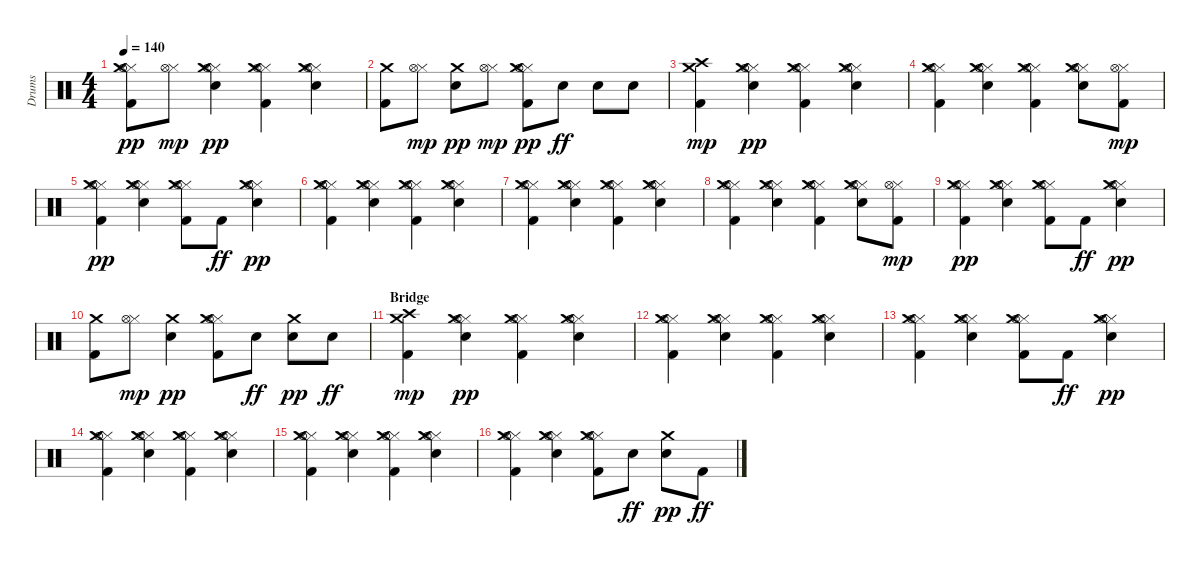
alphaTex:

\track ("Drums" "Drums") {instrument percussion}
\staff {score}
\articulation defaults
\ts (4 4)
\tempo 140
\clef neutral
\ks c
("Kick (hit) 2" "Hi-Hat (closed)" "Hi-Hat (open)" "Crash medium (hit)").8{dy pp} ("Hi-Hat (closed)" "Hi-Hat (open)").8{dy mp} ("Snare (hit) 2" "Hi-Hat (closed)" "Hi-Hat (open)" "Crash medium (hit)").4{dy pp} ("Kick (hit) 2" "Hi-Hat (closed)" "Hi-Hat (open)" "Crash medium (hit)").4 ("Snare (hit) 2" "Hi-Hat (closed)" "Hi-Hat (open)" "Crash medium (hit)").4 |
("Kick (hit) 2" "Crash medium (hit)").8 ("Hi-Hat (closed)" "Hi-Hat (open)").8{dy mp} ("Snare (hit) 2" "Crash medium (hit)").8{dy pp} ("Hi-Hat (closed)" "Hi-Hat (open)").8{dy mp} ("Kick (hit) 2" "Hi-Hat (closed)" "Hi-Hat (open)" "Crash medium (hit)").8{dy pp} "Snare (hit) 2".8{dy ff} "Snare (hit) 2".8 "Snare (hit) 2".8 |
("Kick (hit) 2" "Crash high (hit)" "Crash medium (hit)").4{dy mp} ("Snare (hit) 2" "Hi-Hat (closed)" "Hi-Hat (open)" "Crash medium (hit)").4{dy pp} ("Kick (hit) 2" "Hi-Hat (closed)" "Hi-Hat (open)" "Crash medium (hit)").4 ("Snare (hit) 2" "Hi-Hat (closed)" "Hi-Hat (open)" "Crash medium (hit)").4 |
("Kick (hit) 2" "Hi-Hat (closed)" "Hi-Hat (open)" "Crash medium (hit)").4 ("Snare (hit) 2" "Hi-Hat (closed)" "Hi-Hat (open)" "Crash medium (hit)").4 ("Kick (hit) 2" "Hi-Hat (closed)" "Hi-Hat (open)" "Crash medium (hit)").4 ("Snare (hit) 2" "Hi-Hat (closed)" "Hi-Hat (open)" "Crash medium (hit)").8 ("Kick (hit) 2" "Hi-Hat (closed)" "Hi-Hat (open)").8{dy mp} |
("Kick (hit) 2" "Hi-Hat (closed)" "Hi-Hat (open)" "Crash medium (hit)").4{dy pp} ("Snare (hit) 2" "Hi-Hat (closed)" "Hi-Hat (open)" "Crash medium (hit)").4 ("Kick (hit) 2" "Hi-Hat (closed)" "Hi-Hat (open)" "Crash medium (hit)").8 "Kick (hit) 2".8{dy ff} ("Snare (hit) 2" "Hi-Hat (closed)" "Hi-Hat (open)" "Crash medium (hit)").4{dy pp} |
("Kick (hit) 2" "Hi-Hat (closed)" "Hi-Hat (open)" "Crash medium (hit)").4 ("Snare (hit) 2" "Hi-Hat (closed)" "Hi-Hat (open)" "Crash medium (hit)").4 ("Kick (hit) 2" "Hi-Hat (closed)" "Hi-Hat (open)" "Crash medium (hit)").4 ("Snare (hit) 2" "Hi-Hat (closed)" "Hi-Hat (open)" "Crash medium (hit)").4 |
("Kick (hit) 2" "Hi-Hat (closed)" "Hi-Hat (open)" "Crash medium (hit)").4 ("Snare (hit) 2" "Hi-Hat (closed)" "Hi-Hat (open)" "Crash medium (hit)").4 ("Kick (hit) 2" "Hi-Hat (closed)" "Hi-Hat (open)" "Crash medium (hit)").4 ("Snare (hit) 2" "Hi-Hat (closed)" "Hi-Hat (open)" "Crash medium (hit)").4 |
("Kick (hit) 2" "Hi-Hat (closed)" "Hi-Hat (open)" "Crash medium (hit)").4 ("Snare (hit) 2" "Hi-Hat (closed)" "Hi-Hat (open)" "Crash medium (hit)").4 ("Kick (hit) 2" "Hi-Hat (closed)" "Hi-Hat (open)" "Crash medium (hit)").4 ("Snare (hit) 2" "Hi-Hat (closed)" "Hi-Hat (open)" "Crash medium (hit)").8 ("Kick (hit) 2" "Hi-Hat (closed)" "Hi-Hat (open)").8{dy mp} |
("Kick (hit) 2" "Hi-Hat (closed)" "Hi-Hat (open)" "Crash medium (hit)").4{dy pp} ("Snare (hit) 2" "Hi-Hat (closed)" "Hi-Hat (open)" "Crash medium (hit)").4 ("Kick (hit) 2" "Hi-Hat (closed)" "Hi-Hat (open)" "Crash medium (hit)").8 "Kick (hit) 2".8{dy ff} ("Snare (hit) 2" "Hi-Hat (closed)" "Hi-Hat (open)" "Crash medium (hit)").4{dy pp} |
("Kick (hit) 2" "Crash medium (hit)").8 ("Hi-Hat (closed)" "Hi-Hat (open)").8{dy mp} ("Snare (hit) 2" "Crash medium (hit)").4{dy pp} ("Kick (hit) 2" "Hi-Hat (closed)" "Hi-Hat (open)" "Crash medium (hit)").8 "Snare (hit) 2".8{dy ff} ("Snare (hit) 2" "Crash medium (hit)").8{dy pp} "Snare (hit) 2".8{dy ff} |
\section ("" "Bridge")
("Kick (hit) 2" "Crash high (hit)" "Crash medium (hit)").4{dy mp} ("Snare (hit) 2" "Hi-Hat (closed)" "Hi-Hat (open)" "Crash medium (hit)").4{dy pp} ("Kick (hit) 2" "Hi-Hat (closed)" "Hi-Hat (open)" "Crash medium (hit)").4 ("Snare (hit) 2" "Hi-Hat (closed)" "Hi-Hat (open)" "Crash medium (hit)").4 |
("Kick (hit) 2" "Hi-Hat (closed)" "Hi-Hat (open)" "Crash medium (hit)").4 ("Snare (hit) 2" "Hi-Hat (closed)" "Hi-Hat (open)" "Crash medium (hit)").4 ("Kick (hit) 2" "Hi-Hat (closed)" "Hi-Hat (open)" "Crash medium (hit)").4 ("Snare (hit) 2" "Hi-Hat (closed)" "Hi-Hat (open)" "Crash medium (hit)").4 |
("Kick (hit) 2" "Hi-Hat (closed)" "Hi-Hat (open)" "Crash medium (hit)").4 ("Snare (hit) 2" "Hi-Hat (closed)" "Hi-Hat (open)" "Crash medium (hit)").4 ("Kick (hit) 2" "Hi-Hat (closed)" "Hi-Hat (open)" "Crash medium (hit)").8 "Kick (hit) 2".8{dy ff} ("Snare (hit) 2" "Hi-Hat (closed)" "Hi-Hat (open)" "Crash medium (hit)").4{dy pp} |
("Kick (hit) 2" "Hi-Hat (closed)" "Hi-Hat (open)" "Crash medium (hit)").4 ("Snare (hit) 2" "Hi-Hat (closed)" "Hi-Hat (open)" "Crash medium (hit)").4 ("Kick (hit) 2" "Hi-Hat (closed)" "Hi-Hat (open)" "Crash medium (hit)").4 ("Snare (hit) 2" "Hi-Hat (closed)" "Hi-Hat (open)" "Crash medium (hit)").4 |
("Kick (hit) 2" "Hi-Hat (closed)" "Hi-Hat (open)" "Crash medium (hit)").4 ("Snare (hit) 2" "Hi-Hat (closed)" "Hi-Hat (open)" "Crash medium (hit)").4 ("Kick (hit) 2" "Hi-Hat (closed)" "Hi-Hat (open)" "Crash medium (hit)").4 ("Snare (hit) 2" "Hi-Hat (closed)" "Hi-Hat (open)" "Crash medium (hit)").4 |
("Kick (hit) 2" "Hi-Hat (closed)" "Hi-Hat (open)" "Crash medium (hit)").4 ("Snare (hit) 2" "Hi-Hat (closed)" "Hi-Hat (open)" "Crash medium (hit)").4 ("Kick (hit) 2" "Hi-Hat (closed)" "Hi-Hat (open)" "Crash medium (hit)").8 "Snare (hit) 2".8{dy ff} ("Snare (hit) 2" "Crash medium (hit)").8{dy pp} "Kick (hit) 2".8{dy ff}
